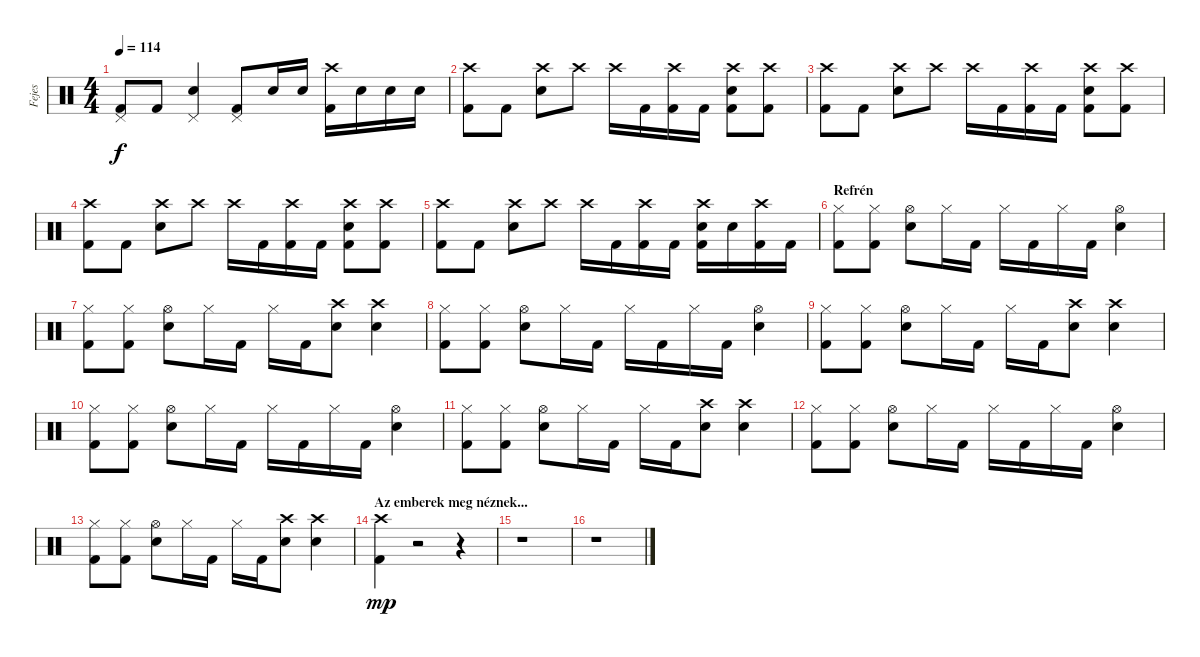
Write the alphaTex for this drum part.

\track ("Fejes" "Fejes") {instrument percussion}
\staff {score}
\articulation defaults
\ts (4 4)
\tempo 114
\clef neutral
\ks c
("Pedal Hi-Hat (hit)" "Kick (hit) 2").8{dy f} "Kick (hit) 2".8 ("Pedal Hi-Hat (hit)" "Electric Snare (hit)").4 ("Pedal Hi-Hat (hit)" "Kick (hit) 2").8 "Electric Snare (hit)".16 "Electric Snare (hit)".16 ("Crash high (hit)" "Kick (hit) 2").16 "Electric Snare (hit)".16 "Electric Snare (hit)".16 "Electric Snare (hit)".16 |
("Crash high (hit)" "Kick (hit) 2").8 "Kick (hit) 2".8 ("Crash high (hit)" "Electric Snare (hit)").8 "Crash high (hit)".8 "Crash high (hit)".16 "Kick (hit) 2".16 ("Crash high (hit)" "Kick (hit) 2").16 "Kick (hit) 2".16 ("Crash high (hit)" "Electric Snare (hit)" "Kick (hit) 2").8 ("Crash high (hit)" "Kick (hit) 2").8 |
("Crash high (hit)" "Kick (hit) 2").8 "Kick (hit) 2".8 ("Crash high (hit)" "Electric Snare (hit)").8 "Crash high (hit)".8 "Crash high (hit)".16 "Kick (hit) 2".16 ("Crash high (hit)" "Kick (hit) 2").16 "Kick (hit) 2".16 ("Crash high (hit)" "Electric Snare (hit)" "Kick (hit) 2").8 ("Crash high (hit)" "Kick (hit) 2").8 |
("Crash high (hit)" "Kick (hit) 2").8 "Kick (hit) 2".8 ("Crash high (hit)" "Electric Snare (hit)").8 "Crash high (hit)".8 "Crash high (hit)".16 "Kick (hit) 2".16 ("Crash high (hit)" "Kick (hit) 2").16 "Kick (hit) 2".16 ("Crash high (hit)" "Electric Snare (hit)" "Kick (hit) 2").8 ("Crash high (hit)" "Kick (hit) 2").8 |
("Crash high (hit)" "Kick (hit) 2").8 "Kick (hit) 2".8 ("Crash high (hit)" "Electric Snare (hit)").8 "Crash high (hit)".8 "Crash high (hit)".16 "Kick (hit) 2".16 ("Crash high (hit)" "Kick (hit) 2").16 "Kick (hit) 2".16 ("Crash high (hit)" "Electric Snare (hit)" "Kick (hit) 2").16 "Electric Snare (hit)".16 ("Crash high (hit)" "Kick (hit) 2").16 "Kick (hit) 2".16 |
\section ("" "Refrén")
("Hi-Hat (closed)" "Kick (hit) 2").8 ("Hi-Hat (closed)" "Kick (hit) 2").8 ("Hi-Hat (open)" "Electric Snare (hit)").8 "Hi-Hat (closed)".16 "Kick (hit) 2".16 "Hi-Hat (closed)".16 "Kick (hit) 2".16 "Hi-Hat (closed)".16 "Kick (hit) 2".16 ("Hi-Hat (open)" "Electric Snare (hit)").4 |
("Hi-Hat (closed)" "Kick (hit) 2").8 ("Hi-Hat (closed)" "Kick (hit) 2").8 ("Hi-Hat (open)" "Electric Snare (hit)").8 "Hi-Hat (closed)".16 "Kick (hit) 2".16 "Hi-Hat (closed)".16 "Kick (hit) 2".16 ("Crash high (hit)" "Electric Snare (hit)").8 ("Crash high (hit)" "Electric Snare (hit)").4 |
("Hi-Hat (closed)" "Kick (hit) 2").8 ("Hi-Hat (closed)" "Kick (hit) 2").8 ("Hi-Hat (open)" "Electric Snare (hit)").8 "Hi-Hat (closed)".16 "Kick (hit) 2".16 "Hi-Hat (closed)".16 "Kick (hit) 2".16 "Hi-Hat (closed)".16 "Kick (hit) 2".16 ("Hi-Hat (open)" "Electric Snare (hit)").4 |
("Hi-Hat (closed)" "Kick (hit) 2").8 ("Hi-Hat (closed)" "Kick (hit) 2").8 ("Hi-Hat (open)" "Electric Snare (hit)").8 "Hi-Hat (closed)".16 "Kick (hit) 2".16 "Hi-Hat (closed)".16 "Kick (hit) 2".16 ("Crash high (hit)" "Electric Snare (hit)").8 ("Crash high (hit)" "Electric Snare (hit)").4 |
("Hi-Hat (closed)" "Kick (hit) 2").8 ("Hi-Hat (closed)" "Kick (hit) 2").8 ("Hi-Hat (open)" "Electric Snare (hit)").8 "Hi-Hat (closed)".16 "Kick (hit) 2".16 "Hi-Hat (closed)".16 "Kick (hit) 2".16 "Hi-Hat (closed)".16 "Kick (hit) 2".16 ("Hi-Hat (open)" "Electric Snare (hit)").4 |
("Hi-Hat (closed)" "Kick (hit) 2").8 ("Hi-Hat (closed)" "Kick (hit) 2").8 ("Hi-Hat (open)" "Electric Snare (hit)").8 "Hi-Hat (closed)".16 "Kick (hit) 2".16 "Hi-Hat (closed)".16 "Kick (hit) 2".16 ("Crash high (hit)" "Electric Snare (hit)").8 ("Crash high (hit)" "Electric Snare (hit)").4 |
("Hi-Hat (closed)" "Kick (hit) 2").8 ("Hi-Hat (closed)" "Kick (hit) 2").8 ("Hi-Hat (open)" "Electric Snare (hit)").8 "Hi-Hat (closed)".16 "Kick (hit) 2".16 "Hi-Hat (closed)".16 "Kick (hit) 2".16 "Hi-Hat (closed)".16 "Kick (hit) 2".16 ("Hi-Hat (open)" "Electric Snare (hit)").4 |
("Hi-Hat (closed)" "Kick (hit) 2").8 ("Hi-Hat (closed)" "Kick (hit) 2").8 ("Hi-Hat (open)" "Electric Snare (hit)").8 "Hi-Hat (closed)".16 "Kick (hit) 2".16 "Hi-Hat (closed)".16 "Kick (hit) 2".16 ("Crash high (hit)" "Electric Snare (hit)").8 ("Crash high (hit)" "Electric Snare (hit)").4 |
\section ("" "Az emberek meg néznek...")
("Crash high (hit)" "Kick (hit) 2").4{dy mp} r.2 r.4 |
r.1 |
r.1
